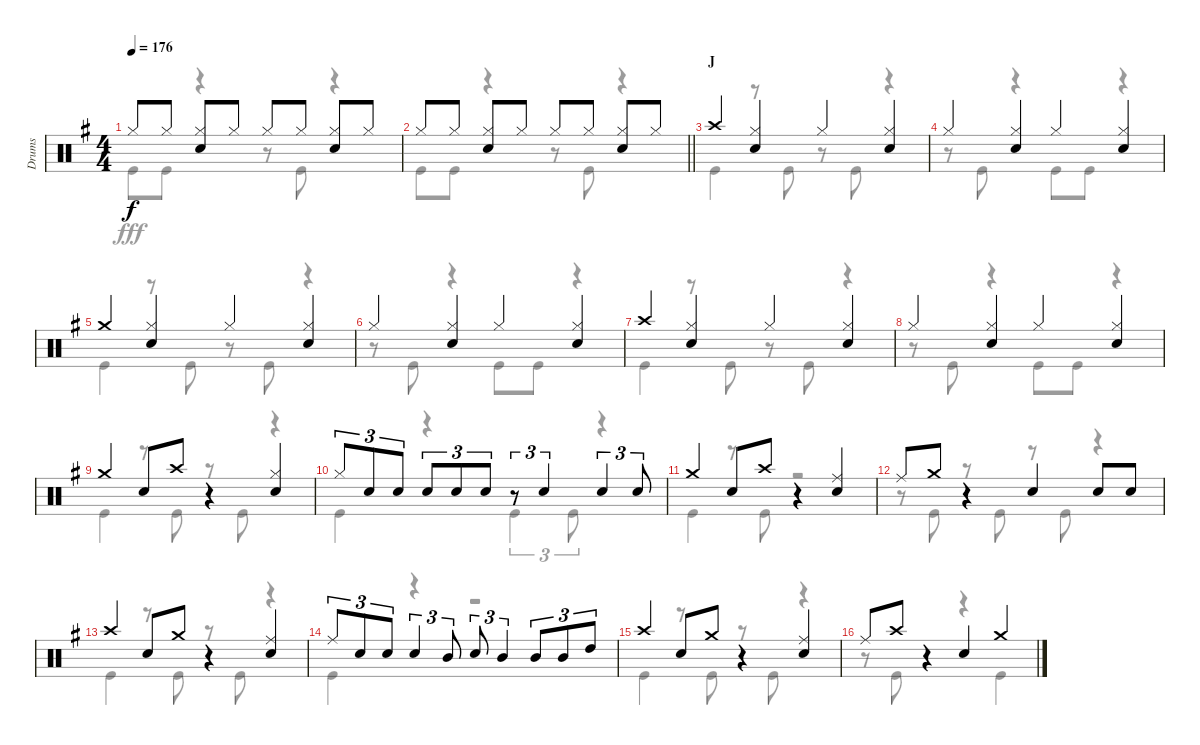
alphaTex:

\track ("Drums" "Drums") {instrument percussion}
\staff {score}
\articulation defaults
\voice
\ts (4 4)
\tempo 176
\clef neutral
\ks g "Hi-Hat (closed)".8{dy f} "Hi-Hat (closed)".8
("Hi-Hat (closed)" "Snare (hit) 2").8 "Hi-Hat (closed)".8 "Hi-Hat (closed)".8 "Hi-Hat (closed)".8 ("Hi-Hat (closed)" "Snare (hit) 2").8 "Hi-Hat (closed)".8 |
\barLineRight lightlight "Hi-Hat (closed)".8 "Hi-Hat (closed)".8
("Hi-Hat (closed)" "Snare (hit) 2").8 "Hi-Hat (closed)".8 "Hi-Hat (closed)".8 "Hi-Hat (closed)".8 ("Hi-Hat (closed)" "Snare (hit) 2").8 "Hi-Hat (closed)".8 |
\section ("" "J")
"Crash high (hit)".4 ("Hi-Hat (closed)" "Snare (hit) 2").4 "Hi-Hat (closed)".4 ("Hi-Hat (closed)" "Snare (hit) 2").4 |
"Hi-Hat (closed)".4 ("Hi-Hat (closed)" "Snare (hit) 2").4 "Hi-Hat (closed)".4 ("Hi-Hat (closed)" "Snare (hit) 2").4 |
"Crash medium (hit)".4 ("Hi-Hat (closed)" "Snare (hit) 2").4 "Hi-Hat (closed)".4 ("Hi-Hat (closed)" "Snare (hit) 2").4 |
"Hi-Hat (closed)".4 ("Hi-Hat (closed)" "Snare (hit) 2").4 "Hi-Hat (closed)".4 ("Hi-Hat (closed)" "Snare (hit) 2").4 |
"Crash high (hit)".4 ("Hi-Hat (closed)" "Snare (hit) 2").4 "Hi-Hat (closed)".4 ("Hi-Hat (closed)" "Snare (hit) 2").4 |
"Hi-Hat (closed)".4 ("Hi-Hat (closed)" "Snare (hit) 2").4 "Hi-Hat (closed)".4 ("Hi-Hat (closed)" "Snare (hit) 2").4 |
"Crash medium (hit)".4 "Snare (hit) 2".8 "Crash high (hit)".8 r.4 ("Hi-Hat (closed)" "Snare (hit) 2").4 |
"Hi-Hat (closed)".8{tu (3 2)} "Snare (hit) 2".8{tu (3 2)} "Snare (hit) 2".8{tu (3 2)} "Snare (hit) 2".8{tu (3 2)} "Snare (hit) 2".8{tu (3 2)} "Snare (hit) 2".8{tu (3 2)} r.8{tu (3 2)} "Snare (hit) 2".4{tu (3 2)} "Snare (hit) 2".4{tu (3 2)} "Snare (hit) 2".8{tu (3 2)} |
"Crash medium (hit)".4 "Snare (hit) 2".8 "Crash high (hit)".8 r.4 ("Ride (middle)" "Snare (hit) 2").4 |
"Ride (middle)".8 "Crash medium (hit)".8 r.4 "Snare (hit) 2".4 "Snare (hit) 2".8 "Snare (hit) 2".8 |
"Crash high (hit)".4 "Snare (hit) 2".8 "Crash medium (hit)".8 r.4 ("Ride (middle)" "Snare (hit) 2").4 |
"Ride (middle)".8{tu (3 2)} "Snare (hit) 2".8{tu (3 2)} "Snare (hit) 2".8{tu (3 2)} "Snare (hit) 2".4{tu (3 2)} "Mid Tom (hit)".8{tu (3 2)} "Snare (hit) 2".8{tu (3 2)} "Mid Tom (hit)".4{tu (3 2)} "Mid Tom (hit)".8{tu (3 2)} "Mid Tom (hit)".8{tu (3 2)} "High Tom (hit)".8{tu (3 2)} |
"Crash high (hit)".4 "Snare (hit) 2".8 "Crash medium (hit)".8 r.4 ("Ride (middle)" "Snare (hit) 2").4 |
"Ride (middle)".8 "Crash high (hit)".8 r.4 "Snare (hit) 2".4 "Crash medium (hit)".4
\voice
\clef neutral
\ottava regular
\simile none
\ks g "Kick (hit)".8{dy fff} "Kick (hit)".8
r.4 r.8 "Kick (hit)".8 r.4 |
\barLineRight lightlight "Kick (hit)".8 "Kick (hit)".8
r.4 r.8 "Kick (hit)".8 r.4 |
"Kick (hit)".4 r.8 "Kick (hit)".8 r.8 "Kick (hit)".8 r.4 |
r.8 "Kick (hit)".8 r.4 "Kick (hit)".8 "Kick (hit)".8 r.4 |
"Kick (hit)".4 r.8 "Kick (hit)".8 r.8 "Kick (hit)".8 r.4 |
r.8 "Kick (hit)".8 r.4 "Kick (hit)".8 "Kick (hit)".8 r.4 |
"Kick (hit)".4 r.8 "Kick (hit)".8 r.8 "Kick (hit)".8 r.4 |
r.8 "Kick (hit)".8 r.4 "Kick (hit)".8 "Kick (hit)".8 r.4 |
"Kick (hit)".4 r.8 "Kick (hit)".8 r.8 "Kick (hit)".8 r.4 |
"Kick (hit)".4 r.4 "Kick (hit)".4{tu (3 2)} "Kick (hit)".8{tu (3 2)} r.4 |
"Kick (hit)".4 r.8 "Kick (hit)".8 r.2 |
r.8 "Kick (hit)".8 r.8 "Kick (hit)".8 r.8 "Kick (hit)".8 r.4 |
"Kick (hit)".4 r.8 "Kick (hit)".8 r.8 "Kick (hit)".8 r.4 |
"Kick (hit)".4 r.4 r.2 |
"Kick (hit)".4 r.8 "Kick (hit)".8 r.8 "Kick (hit)".8 r.4 |
r.8 "Kick (hit)".8 r.4 r.4 "Kick (hit)".4
